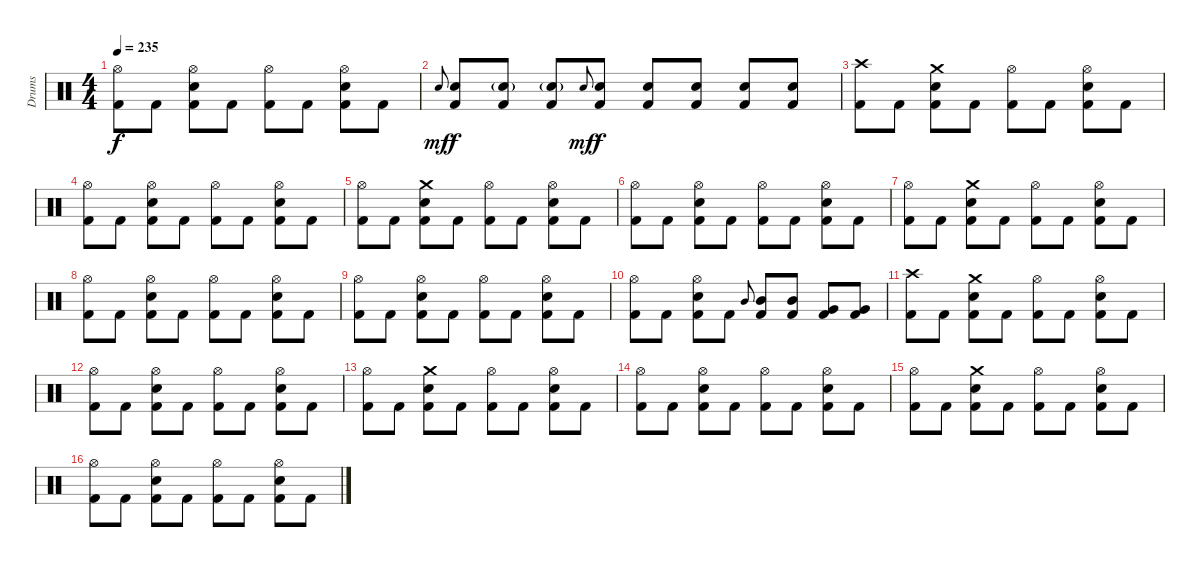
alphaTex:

\track ("Drums" "Drums") {instrument percussion}
\staff {score}
\articulation defaults
\ts (4 4)
\tempo 235
\clef neutral
\ks aminor
("Hi-Hat (open)" "Kick (hit) 2").8{dy f} "Kick (hit) 2".8 ("Hi-Hat (open)" "Electric Snare (hit)" "Kick (hit) 2").8 "Kick (hit) 2".8 ("Hi-Hat (open)" "Kick (hit) 2").8 "Kick (hit) 2".8 ("Hi-Hat (open)" "Electric Snare (hit)" "Kick (hit) 2").8 "Kick (hit) 2".8 |
"Electric Snare (hit)".8{gr onbeat dy mf} ("Kick (hit) 2" "Electric Snare (hit)").8{dy f} ("Kick (hit) 2" "Electric Snare (hit)"{g}).8 ("Kick (hit) 2" "Electric Snare (hit)"{g}).8 "Electric Snare (hit)".8{gr onbeat dy mf} ("Kick (hit) 2" "Electric Snare (hit)").8{dy f} ("Kick (hit) 2" "Electric Snare (hit)").8 ("Kick (hit) 2" "Electric Snare (hit)").8 ("Kick (hit) 2" "Electric Snare (hit)").8 ("Kick (hit) 2" "Electric Snare (hit)").8 |
("Crash high (hit)" "Kick (hit) 2").8 "Kick (hit) 2".8 ("Electric Snare (hit)" "Crash medium (hit)" "Kick (hit) 2").8 "Kick (hit) 2".8 ("Hi-Hat (open)" "Kick (hit) 2").8 "Kick (hit) 2".8 ("Hi-Hat (open)" "Electric Snare (hit)" "Kick (hit) 2").8 "Kick (hit) 2".8 |
("Hi-Hat (open)" "Kick (hit) 2").8 "Kick (hit) 2".8 ("Hi-Hat (open)" "Electric Snare (hit)" "Kick (hit) 2").8 "Kick (hit) 2".8 ("Hi-Hat (open)" "Kick (hit) 2").8 "Kick (hit) 2".8 ("Hi-Hat (open)" "Electric Snare (hit)" "Kick (hit) 2").8 "Kick (hit) 2".8 |
("Hi-Hat (open)" "Kick (hit) 2").8 "Kick (hit) 2".8 ("Crash medium (hit)" "Electric Snare (hit)" "Kick (hit) 2").8 "Kick (hit) 2".8 ("Hi-Hat (open)" "Kick (hit) 2").8 "Kick (hit) 2".8 ("Hi-Hat (open)" "Electric Snare (hit)" "Kick (hit) 2").8 "Kick (hit) 2".8 |
("Hi-Hat (open)" "Kick (hit) 2").8 "Kick (hit) 2".8 ("Hi-Hat (open)" "Electric Snare (hit)" "Kick (hit) 2").8 "Kick (hit) 2".8 ("Hi-Hat (open)" "Kick (hit) 2").8 "Kick (hit) 2".8 ("Hi-Hat (open)" "Electric Snare (hit)" "Kick (hit) 2").8 "Kick (hit) 2".8 |
("Hi-Hat (open)" "Kick (hit) 2").8 "Kick (hit) 2".8 ("Crash medium (hit)" "Electric Snare (hit)" "Kick (hit) 2").8 "Kick (hit) 2".8 ("Hi-Hat (open)" "Kick (hit) 2").8 "Kick (hit) 2".8 ("Hi-Hat (open)" "Electric Snare (hit)" "Kick (hit) 2").8 "Kick (hit) 2".8 |
("Hi-Hat (open)" "Kick (hit) 2").8 "Kick (hit) 2".8 ("Hi-Hat (open)" "Electric Snare (hit)" "Kick (hit) 2").8 "Kick (hit) 2".8 ("Hi-Hat (open)" "Kick (hit) 2").8 "Kick (hit) 2".8 ("Hi-Hat (open)" "Electric Snare (hit)" "Kick (hit) 2").8 "Kick (hit) 2".8 |
("Hi-Hat (open)" "Kick (hit) 2").8 "Kick (hit) 2".8 ("Hi-Hat (open)" "Electric Snare (hit)" "Kick (hit) 2").8 "Kick (hit) 2".8 ("Hi-Hat (open)" "Kick (hit) 2").8 "Kick (hit) 2".8 ("Hi-Hat (open)" "Electric Snare (hit)" "Kick (hit) 2").8 "Kick (hit) 2".8 |
("Hi-Hat (open)" "Kick (hit) 2").8 "Kick (hit) 2".8 ("Hi-Hat (open)" "Electric Snare (hit)" "Kick (hit) 2").8 "Kick (hit) 2".8 "Mid Tom (hit)".8{gr onbeat} ("Mid Tom (hit)" "Kick (hit) 2").8 ("Mid Tom (hit)" "Kick (hit) 2").8 ("Very Low Tom (hit)" "Kick (hit) 2").8 ("Very Low Tom (hit)" "Kick (hit) 2").8 |
("Crash high (hit)" "Kick (hit) 2").8 "Kick (hit) 2".8 ("Electric Snare (hit)" "Crash medium (hit)" "Kick (hit) 2").8 "Kick (hit) 2".8 ("Hi-Hat (open)" "Kick (hit) 2").8 "Kick (hit) 2".8 ("Hi-Hat (open)" "Electric Snare (hit)" "Kick (hit) 2").8 "Kick (hit) 2".8 |
("Hi-Hat (open)" "Kick (hit) 2").8 "Kick (hit) 2".8 ("Hi-Hat (open)" "Electric Snare (hit)" "Kick (hit) 2").8 "Kick (hit) 2".8 ("Hi-Hat (open)" "Kick (hit) 2").8 "Kick (hit) 2".8 ("Hi-Hat (open)" "Electric Snare (hit)" "Kick (hit) 2").8 "Kick (hit) 2".8 |
("Hi-Hat (open)" "Kick (hit) 2").8 "Kick (hit) 2".8 ("Crash medium (hit)" "Electric Snare (hit)" "Kick (hit) 2").8 "Kick (hit) 2".8 ("Hi-Hat (open)" "Kick (hit) 2").8 "Kick (hit) 2".8 ("Hi-Hat (open)" "Electric Snare (hit)" "Kick (hit) 2").8 "Kick (hit) 2".8 |
("Hi-Hat (open)" "Kick (hit) 2").8 "Kick (hit) 2".8 ("Hi-Hat (open)" "Electric Snare (hit)" "Kick (hit) 2").8 "Kick (hit) 2".8 ("Hi-Hat (open)" "Kick (hit) 2").8 "Kick (hit) 2".8 ("Hi-Hat (open)" "Electric Snare (hit)" "Kick (hit) 2").8 "Kick (hit) 2".8 |
("Hi-Hat (open)" "Kick (hit) 2").8 "Kick (hit) 2".8 ("Crash medium (hit)" "Electric Snare (hit)" "Kick (hit) 2").8 "Kick (hit) 2".8 ("Hi-Hat (open)" "Kick (hit) 2").8 "Kick (hit) 2".8 ("Hi-Hat (open)" "Electric Snare (hit)" "Kick (hit) 2").8 "Kick (hit) 2".8 |
("Hi-Hat (open)" "Kick (hit) 2").8 "Kick (hit) 2".8 ("Hi-Hat (open)" "Electric Snare (hit)" "Kick (hit) 2").8 "Kick (hit) 2".8 ("Hi-Hat (open)" "Kick (hit) 2").8 "Kick (hit) 2".8 ("Hi-Hat (open)" "Electric Snare (hit)" "Kick (hit) 2").8 "Kick (hit) 2".8
